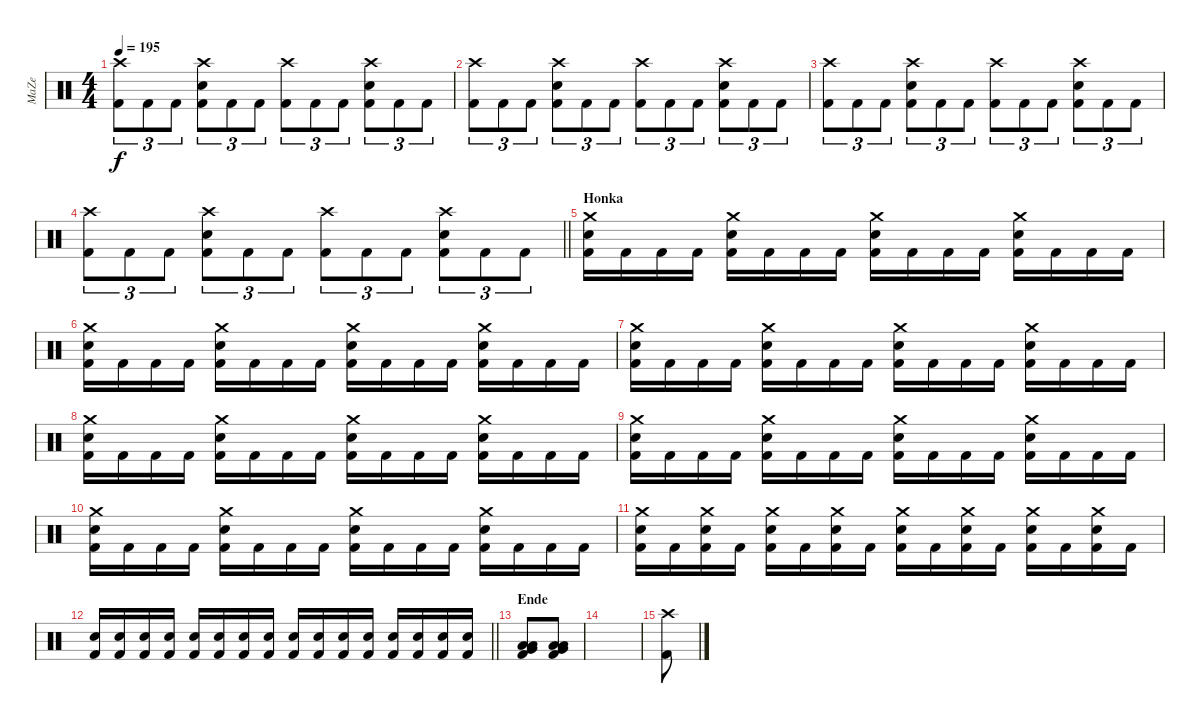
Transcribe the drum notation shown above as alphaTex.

\track ("MaZe" "MaZe") {instrument percussion}
\staff {score}
\articulation defaults
\ts (4 4)
\tempo 195
\clef neutral
\ks c
("Crash high (hit)" "Kick (hit) 2").8{tu (3 2) dy f} "Kick (hit) 2".8{tu (3 2)} "Kick (hit) 2".8{tu (3 2)} ("Snare (hit) 2" "Crash high (hit)" "Kick (hit) 2").8{tu (3 2)} "Kick (hit) 2".8{tu (3 2)} "Kick (hit) 2".8{tu (3 2)} ("Crash high (hit)" "Kick (hit) 2").8{tu (3 2)} "Kick (hit) 2".8{tu (3 2)} "Kick (hit) 2".8{tu (3 2)} ("Snare (hit) 2" "Crash high (hit)" "Kick (hit) 2").8{tu (3 2)} "Kick (hit) 2".8{tu (3 2)} "Kick (hit) 2".8{tu (3 2)} |
("Crash high (hit)" "Kick (hit) 2").8{tu (3 2)} "Kick (hit) 2".8{tu (3 2)} "Kick (hit) 2".8{tu (3 2)} ("Snare (hit) 2" "Crash high (hit)" "Kick (hit) 2").8{tu (3 2)} "Kick (hit) 2".8{tu (3 2)} "Kick (hit) 2".8{tu (3 2)} ("Crash high (hit)" "Kick (hit) 2").8{tu (3 2)} "Kick (hit) 2".8{tu (3 2)} "Kick (hit) 2".8{tu (3 2)} ("Snare (hit) 2" "Crash high (hit)" "Kick (hit) 2").8{tu (3 2)} "Kick (hit) 2".8{tu (3 2)} "Kick (hit) 2".8{tu (3 2)} |
("Crash high (hit)" "Kick (hit) 2").8{tu (3 2)} "Kick (hit) 2".8{tu (3 2)} "Kick (hit) 2".8{tu (3 2)} ("Snare (hit) 2" "Crash high (hit)" "Kick (hit) 2").8{tu (3 2)} "Kick (hit) 2".8{tu (3 2)} "Kick (hit) 2".8{tu (3 2)} ("Crash high (hit)" "Kick (hit) 2").8{tu (3 2)} "Kick (hit) 2".8{tu (3 2)} "Kick (hit) 2".8{tu (3 2)} ("Snare (hit) 2" "Crash high (hit)" "Kick (hit) 2").8{tu (3 2)} "Kick (hit) 2".8{tu (3 2)} "Kick (hit) 2".8{tu (3 2)} |
\barLineRight lightlight
("Crash high (hit)" "Kick (hit) 2").8{tu (3 2)} "Kick (hit) 2".8{tu (3 2)} "Kick (hit) 2".8{tu (3 2)} ("Snare (hit) 2" "Crash high (hit)" "Kick (hit) 2").8{tu (3 2)} "Kick (hit) 2".8{tu (3 2)} "Kick (hit) 2".8{tu (3 2)} ("Crash high (hit)" "Kick (hit) 2").8{tu (3 2)} "Kick (hit) 2".8{tu (3 2)} "Kick (hit) 2".8{tu (3 2)} ("Snare (hit) 2" "Crash high (hit)" "Kick (hit) 2").8{tu (3 2)} "Kick (hit) 2".8{tu (3 2)} "Kick (hit) 2".8{tu (3 2)} |
\section ("" "Honka")
("Snare (hit) 2" "Crash medium (hit)" "Kick (hit) 2").16 "Kick (hit) 2".16 "Kick (hit) 2".16 "Kick (hit) 2".16 ("Snare (hit) 2" "Crash medium (hit)" "Kick (hit) 2").16 "Kick (hit) 2".16 "Kick (hit) 2".16 "Kick (hit) 2".16 ("Snare (hit) 2" "Crash medium (hit)" "Kick (hit) 2").16 "Kick (hit) 2".16 "Kick (hit) 2".16 "Kick (hit) 2".16 ("Snare (hit) 2" "Crash medium (hit)" "Kick (hit) 2").16 "Kick (hit) 2".16 "Kick (hit) 2".16 "Kick (hit) 2".16 |
("Snare (hit) 2" "Crash medium (hit)" "Kick (hit) 2").16 "Kick (hit) 2".16 "Kick (hit) 2".16 "Kick (hit) 2".16 ("Snare (hit) 2" "Crash medium (hit)" "Kick (hit) 2").16 "Kick (hit) 2".16 "Kick (hit) 2".16 "Kick (hit) 2".16 ("Snare (hit) 2" "Crash medium (hit)" "Kick (hit) 2").16 "Kick (hit) 2".16 "Kick (hit) 2".16 "Kick (hit) 2".16 ("Snare (hit) 2" "Crash medium (hit)" "Kick (hit) 2").16 "Kick (hit) 2".16 "Kick (hit) 2".16 "Kick (hit) 2".16 |
("Snare (hit) 2" "Crash medium (hit)" "Kick (hit) 2").16 "Kick (hit) 2".16 "Kick (hit) 2".16 "Kick (hit) 2".16 ("Snare (hit) 2" "Crash medium (hit)" "Kick (hit) 2").16 "Kick (hit) 2".16 "Kick (hit) 2".16 "Kick (hit) 2".16 ("Snare (hit) 2" "Crash medium (hit)" "Kick (hit) 2").16 "Kick (hit) 2".16 "Kick (hit) 2".16 "Kick (hit) 2".16 ("Snare (hit) 2" "Crash medium (hit)" "Kick (hit) 2").16 "Kick (hit) 2".16 "Kick (hit) 2".16 "Kick (hit) 2".16 |
("Snare (hit) 2" "Crash medium (hit)" "Kick (hit) 2").16 "Kick (hit) 2".16 "Kick (hit) 2".16 "Kick (hit) 2".16 ("Snare (hit) 2" "Crash medium (hit)" "Kick (hit) 2").16 "Kick (hit) 2".16 "Kick (hit) 2".16 "Kick (hit) 2".16 ("Snare (hit) 2" "Crash medium (hit)" "Kick (hit) 2").16 "Kick (hit) 2".16 "Kick (hit) 2".16 "Kick (hit) 2".16 ("Snare (hit) 2" "Crash medium (hit)" "Kick (hit) 2").16 "Kick (hit) 2".16 "Kick (hit) 2".16 "Kick (hit) 2".16 |
("Snare (hit) 2" "Crash medium (hit)" "Kick (hit) 2").16 "Kick (hit) 2".16 "Kick (hit) 2".16 "Kick (hit) 2".16 ("Snare (hit) 2" "Crash medium (hit)" "Kick (hit) 2").16 "Kick (hit) 2".16 "Kick (hit) 2".16 "Kick (hit) 2".16 ("Snare (hit) 2" "Crash medium (hit)" "Kick (hit) 2").16 "Kick (hit) 2".16 "Kick (hit) 2".16 "Kick (hit) 2".16 ("Snare (hit) 2" "Crash medium (hit)" "Kick (hit) 2").16 "Kick (hit) 2".16 "Kick (hit) 2".16 "Kick (hit) 2".16 |
("Snare (hit) 2" "Crash medium (hit)" "Kick (hit) 2").16 "Kick (hit) 2".16 "Kick (hit) 2".16 "Kick (hit) 2".16 ("Snare (hit) 2" "Crash medium (hit)" "Kick (hit) 2").16 "Kick (hit) 2".16 "Kick (hit) 2".16 "Kick (hit) 2".16 ("Snare (hit) 2" "Crash medium (hit)" "Kick (hit) 2").16 "Kick (hit) 2".16 "Kick (hit) 2".16 "Kick (hit) 2".16 ("Snare (hit) 2" "Crash medium (hit)" "Kick (hit) 2").16 "Kick (hit) 2".16 "Kick (hit) 2".16 "Kick (hit) 2".16 |
("Snare (hit) 2" "Crash medium (hit)" "Kick (hit) 2").16 "Kick (hit) 2".16 ("Snare (hit) 2" "Crash medium (hit)" "Kick (hit) 2").16 "Kick (hit) 2".16 ("Snare (hit) 2" "Crash medium (hit)" "Kick (hit) 2").16 "Kick (hit) 2".16 ("Snare (hit) 2" "Crash medium (hit)" "Kick (hit) 2").16 "Kick (hit) 2".16 ("Snare (hit) 2" "Crash medium (hit)" "Kick (hit) 2").16 "Kick (hit) 2".16 ("Snare (hit) 2" "Crash medium (hit)" "Kick (hit) 2").16 "Kick (hit) 2".16 ("Snare (hit) 2" "Crash medium (hit)" "Kick (hit) 2").16 "Kick (hit) 2".16 ("Snare (hit) 2" "Crash medium (hit)" "Kick (hit) 2").16 "Kick (hit) 2".16 |
\barLineRight lightlight
("Snare (hit) 2" "Kick (hit) 2").16 ("Snare (hit) 2" "Kick (hit) 2").16 ("Snare (hit) 2" "Kick (hit) 2").16 ("Snare (hit) 2" "Kick (hit) 2").16 ("Snare (hit) 2" "Kick (hit) 2").16 ("Snare (hit) 2" "Kick (hit) 2").16 ("Snare (hit) 2" "Kick (hit) 2").16 ("Snare (hit) 2" "Kick (hit) 2").16 ("Snare (hit) 2" "Kick (hit) 2").16 ("Snare (hit) 2" "Kick (hit) 2").16 ("Snare (hit) 2" "Kick (hit) 2").16 ("Snare (hit) 2" "Kick (hit) 2").16 ("Snare (hit) 2" "Kick (hit) 2").16 ("Snare (hit) 2" "Kick (hit) 2").16 ("Snare (hit) 2" "Kick (hit) 2").16 ("Snare (hit) 2" "Kick (hit) 2").16 |
\section ("" "Ende")
("Low Tom (hit)" "Very Low Tom (hit)" "Low Floor Tom (hit)" "Kick (hit) 2").8 ("Low Tom (hit)" "Very Low Tom (hit)" "Low Floor Tom (hit)" "Kick (hit) 2").8 |
|
("Crash high (hit)" "Kick (hit) 2").8
